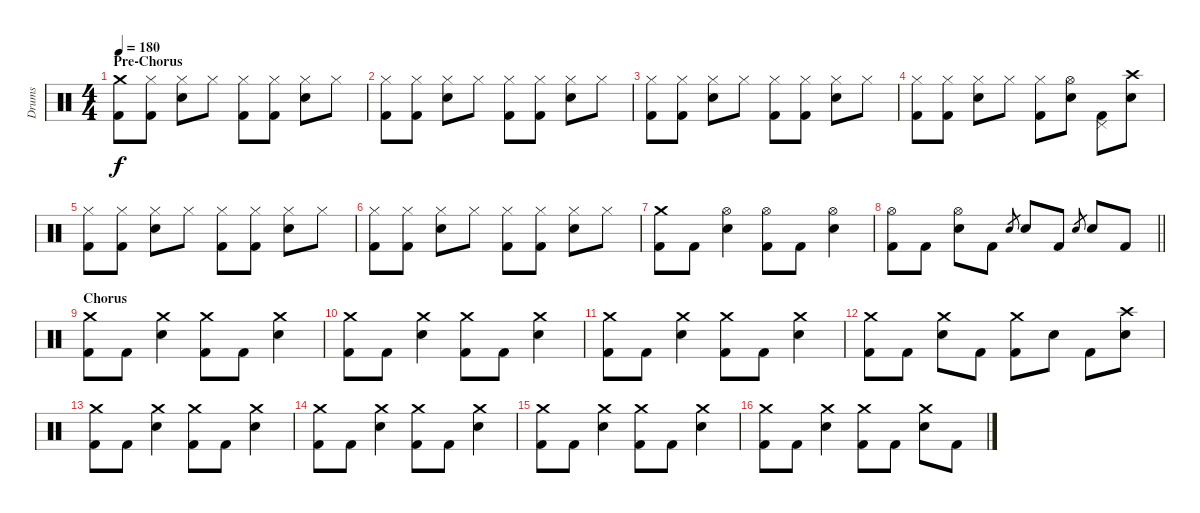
\track ("Drums" "Drums") {instrument percussion}
\staff {score}
\articulation defaults
\ts (4 4)
\section ("" "Pre-Chorus")
\tempo 180
\clef neutral
\ks c
("Crash medium (hit)" "Kick (hit) 2").8{dy f} ("Hi-Hat (closed)" "Kick (hit) 2").8 ("Hi-Hat (closed)" "Electric Snare (hit)").8 "Hi-Hat (closed)".8 ("Hi-Hat (closed)" "Kick (hit) 2").8 ("Hi-Hat (closed)" "Kick (hit) 2").8 ("Hi-Hat (closed)" "Electric Snare (hit)").8 "Hi-Hat (closed)".8 |
("Hi-Hat (closed)" "Kick (hit) 2").8 ("Hi-Hat (closed)" "Kick (hit) 2").8 ("Hi-Hat (closed)" "Electric Snare (hit)").8 "Hi-Hat (closed)".8 ("Hi-Hat (closed)" "Kick (hit) 2").8 ("Hi-Hat (closed)" "Kick (hit) 2").8 ("Hi-Hat (closed)" "Electric Snare (hit)").8 "Hi-Hat (closed)".8 |
("Hi-Hat (closed)" "Kick (hit) 2").8 ("Hi-Hat (closed)" "Kick (hit) 2").8 ("Hi-Hat (closed)" "Electric Snare (hit)").8 "Hi-Hat (closed)".8 ("Hi-Hat (closed)" "Kick (hit) 2").8 ("Hi-Hat (closed)" "Kick (hit) 2").8 ("Hi-Hat (closed)" "Electric Snare (hit)").8 "Hi-Hat (closed)".8 |
("Hi-Hat (closed)" "Kick (hit) 2").8 ("Hi-Hat (closed)" "Kick (hit) 2").8 ("Hi-Hat (closed)" "Electric Snare (hit)").8 "Hi-Hat (closed)".8 ("Hi-Hat (closed)" "Kick (hit) 2").8 ("Hi-Hat (open)" "Electric Snare (hit)").8 ("Pedal Hi-Hat (hit)" "Kick (hit) 2").8 ("Crash high (hit)" "Electric Snare (hit)").8 |
("Hi-Hat (closed)" "Kick (hit) 2").8 ("Hi-Hat (closed)" "Kick (hit) 2").8 ("Hi-Hat (closed)" "Electric Snare (hit)").8 "Hi-Hat (closed)".8 ("Hi-Hat (closed)" "Kick (hit) 2").8 ("Hi-Hat (closed)" "Kick (hit) 2").8 ("Hi-Hat (closed)" "Electric Snare (hit)").8 "Hi-Hat (closed)".8 |
("Hi-Hat (closed)" "Kick (hit) 2").8 ("Hi-Hat (closed)" "Kick (hit) 2").8 ("Hi-Hat (closed)" "Electric Snare (hit)").8 "Hi-Hat (closed)".8 ("Hi-Hat (closed)" "Kick (hit) 2").8 ("Hi-Hat (closed)" "Kick (hit) 2").8 ("Hi-Hat (closed)" "Electric Snare (hit)").8 "Hi-Hat (closed)".8 |
("Crash medium (hit)" "Kick (hit) 2").8 "Kick (hit) 2".8 ("Hi-Hat (open)" "Electric Snare (hit)").4 ("Hi-Hat (open)" "Kick (hit) 2").8 "Kick (hit) 2".8 ("Hi-Hat (open)" "Electric Snare (hit)").4 |
\barLineRight lightlight
("Hi-Hat (open)" "Kick (hit) 2").8 "Kick (hit) 2".8 ("Hi-Hat (open)" "Electric Snare (hit)").8 "Kick (hit) 2".8 "Electric Snare (hit)".8{gr} "Electric Snare (hit)".8 "Kick (hit) 2".8 "Electric Snare (hit)".8{gr} "Electric Snare (hit)".8 "Kick (hit) 2".8 |
\section ("" "Chorus")
("Crash medium (hit)" "Kick (hit) 2").8 "Kick (hit) 2".8 ("Crash medium (hit)" "Electric Snare (hit)").4 ("Crash medium (hit)" "Kick (hit) 2").8 "Kick (hit) 2".8 ("Crash medium (hit)" "Electric Snare (hit)").4 |
("Crash medium (hit)" "Kick (hit) 2").8 "Kick (hit) 2".8 ("Crash medium (hit)" "Electric Snare (hit)").4 ("Crash medium (hit)" "Kick (hit) 2").8 "Kick (hit) 2".8 ("Crash medium (hit)" "Electric Snare (hit)").4 |
("Crash medium (hit)" "Kick (hit) 2").8 "Kick (hit) 2".8 ("Crash medium (hit)" "Electric Snare (hit)").4 ("Crash medium (hit)" "Kick (hit) 2").8 "Kick (hit) 2".8 ("Crash medium (hit)" "Electric Snare (hit)").4 |
("Crash medium (hit)" "Kick (hit) 2").8 "Kick (hit) 2".8 ("Crash medium (hit)" "Electric Snare (hit)").8 "Kick (hit) 2".8 ("Crash medium (hit)" "Kick (hit) 2").8 "Electric Snare (hit)".8 "Kick (hit) 2".8 ("Crash high (hit)" "Electric Snare (hit)").8 |
("Crash medium (hit)" "Kick (hit) 2").8 "Kick (hit) 2".8 ("Crash medium (hit)" "Electric Snare (hit)").4 ("Crash medium (hit)" "Kick (hit) 2").8 "Kick (hit) 2".8 ("Crash medium (hit)" "Electric Snare (hit)").4 |
("Crash medium (hit)" "Kick (hit) 2").8 "Kick (hit) 2".8 ("Crash medium (hit)" "Electric Snare (hit)").4 ("Crash medium (hit)" "Kick (hit) 2").8 "Kick (hit) 2".8 ("Crash medium (hit)" "Electric Snare (hit)").4 |
("Crash medium (hit)" "Kick (hit) 2").8 "Kick (hit) 2".8 ("Crash medium (hit)" "Electric Snare (hit)").4 ("Crash medium (hit)" "Kick (hit) 2").8 "Kick (hit) 2".8 ("Crash medium (hit)" "Electric Snare (hit)").4 |
("Crash medium (hit)" "Kick (hit) 2").8 "Kick (hit) 2".8 ("Crash medium (hit)" "Electric Snare (hit)").4 ("Crash medium (hit)" "Kick (hit) 2").8 "Kick (hit) 2".8 ("Crash medium (hit)" "Electric Snare (hit)").8 "Kick (hit) 2".8
